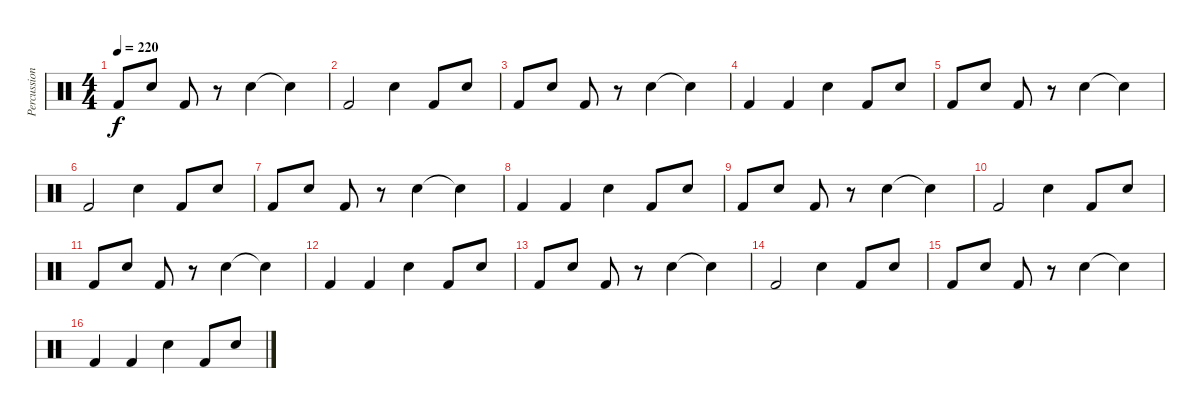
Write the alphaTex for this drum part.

\track ("Percussions" "Percussion") {instrument percussion}
\staff {score}
\articulation defaults
\ts (4 4)
\tempo 220
\clef neutral
\ks c "Kick (hit) 2".8{dy f} "Electric Snare (hit)".8 "Kick (hit) 2".8
r.8 "Electric Snare (hit)".4 "Snare (hit)"{t}.4 |
"Kick (hit) 2".2 "Electric Snare (hit)".4 "Kick (hit) 2".8 "Electric Snare (hit)".8 |
"Kick (hit) 2".8 "Electric Snare (hit)".8 "Kick (hit) 2".8 r.8 "Electric Snare (hit)".4 "Snare (hit)"{t}.4 |
"Kick (hit) 2".4 "Kick (hit) 2".4 "Electric Snare (hit)".4 "Kick (hit) 2".8 "Electric Snare (hit)".8 |
"Kick (hit) 2".8 "Electric Snare (hit)".8 "Kick (hit) 2".8 r.8 "Electric Snare (hit)".4 "Electric Snare (hit)"{t}.4 |
"Kick (hit) 2".2 "Electric Snare (hit)".4 "Kick (hit) 2".8 "Electric Snare (hit)".8 |
"Kick (hit) 2".8 "Electric Snare (hit)".8 "Kick (hit) 2".8 r.8 "Electric Snare (hit)".4 "Snare (hit)"{t}.4 |
"Kick (hit) 2".4 "Kick (hit) 2".4 "Electric Snare (hit)".4 "Kick (hit) 2".8 "Electric Snare (hit)".8 |
"Kick (hit) 2".8 "Electric Snare (hit)".8 "Kick (hit) 2".8 r.8 "Electric Snare (hit)".4 "Electric Snare (hit)"{t}.4 |
"Kick (hit) 2".2 "Electric Snare (hit)".4 "Kick (hit) 2".8 "Electric Snare (hit)".8 |
"Kick (hit) 2".8 "Electric Snare (hit)".8 "Kick (hit) 2".8 r.8 "Electric Snare (hit)".4 "Snare (hit)"{t}.4 |
"Kick (hit) 2".4 "Kick (hit) 2".4 "Electric Snare (hit)".4 "Kick (hit) 2".8 "Electric Snare (hit)".8 |
"Kick (hit) 2".8 "Electric Snare (hit)".8 "Kick (hit) 2".8 r.8 "Electric Snare (hit)".4 "Electric Snare (hit)"{t}.4 |
"Kick (hit) 2".2 "Electric Snare (hit)".4 "Kick (hit) 2".8 "Electric Snare (hit)".8 |
"Kick (hit) 2".8 "Electric Snare (hit)".8 "Kick (hit) 2".8 r.8 "Electric Snare (hit)".4 "Snare (hit)"{t}.4 |
"Kick (hit) 2".4 "Kick (hit) 2".4 "Electric Snare (hit)".4 "Kick (hit) 2".8 "Electric Snare (hit)".8
